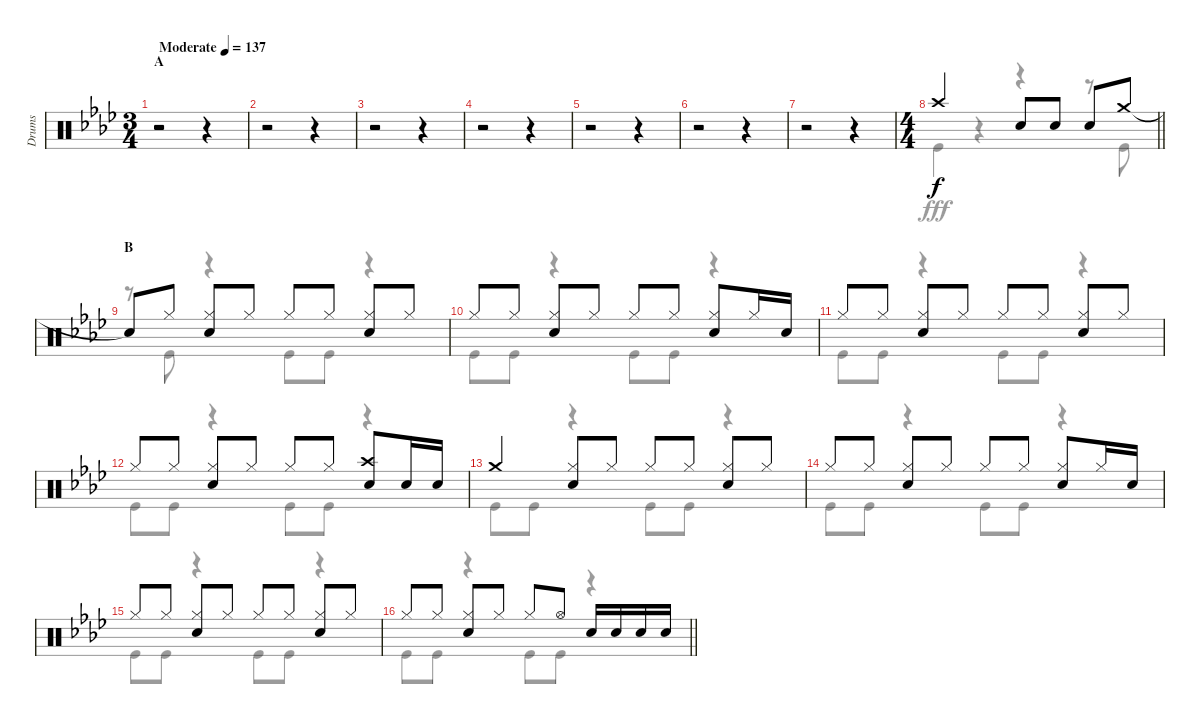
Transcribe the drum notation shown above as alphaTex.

\track ("Drums" "Drums") {instrument percussion}
\staff {score}
\articulation defaults
\voice
\ts (3 4)
\section ("" "A")
\tempo (137 "Moderate")
\clef neutral
\ks ab
r.2{dy f} r.4 |
r.2 r.4 |
r.2 r.4 |
r.2 r.4 |
r.2 r.4 |
r.2 r.4 |
r.2 r.4 |
\ts (4 4)
\barLineRight lightlight "Crash high (hit)".2 "Snare (hit) 2".8 "Snare (hit) 2".8 "Snare (hit) 2".8 "Crash medium (hit)".8
|
\section ("" "B")
"Snare (hit)"{t}.8 "Hi-Hat (closed)".8 ("Hi-Hat (closed)" "Snare (hit) 2").8 "Hi-Hat (closed)".8 "Hi-Hat (closed)".8 "Hi-Hat (closed)".8 ("Hi-Hat (closed)" "Snare (hit) 2").8 "Hi-Hat (closed)".8 |
"Hi-Hat (closed)".8 "Hi-Hat (closed)".8 ("Hi-Hat (closed)" "Snare (hit) 2").8 "Hi-Hat (closed)".8 "Hi-Hat (closed)".8 "Hi-Hat (closed)".8 ("Hi-Hat (closed)" "Snare (hit) 2").8 "Hi-Hat (closed)".16 "Snare (hit) 2".16 |
"Hi-Hat (closed)".8 "Hi-Hat (closed)".8 ("Hi-Hat (closed)" "Snare (hit) 2").8 "Hi-Hat (closed)".8 "Hi-Hat (closed)".8 "Hi-Hat (closed)".8 ("Hi-Hat (closed)" "Snare (hit) 2").8 "Hi-Hat (closed)".8 |
"Hi-Hat (closed)".8 "Hi-Hat (closed)".8 ("Hi-Hat (closed)" "Snare (hit) 2").8 "Hi-Hat (closed)".8 "Hi-Hat (closed)".8 "Hi-Hat (closed)".8 ("Crash high (hit)" "Snare (hit) 2").8 "Snare (hit) 2".16 "Snare (hit) 2".16 |
"Crash medium (hit)".4 ("Hi-Hat (closed)" "Snare (hit) 2").8 "Hi-Hat (closed)".8 "Hi-Hat (closed)".8 "Hi-Hat (closed)".8 ("Hi-Hat (closed)" "Snare (hit) 2").8 "Hi-Hat (closed)".8 |
"Hi-Hat (closed)".8 "Hi-Hat (closed)".8 ("Hi-Hat (closed)" "Snare (hit) 2").8 "Hi-Hat (closed)".8 "Hi-Hat (closed)".8 "Hi-Hat (closed)".8 ("Hi-Hat (closed)" "Snare (hit) 2").8 "Hi-Hat (closed)".16 "Snare (hit) 2".16 |
"Hi-Hat (closed)".8 "Hi-Hat (closed)".8 ("Hi-Hat (closed)" "Snare (hit) 2").8 "Hi-Hat (closed)".8 "Hi-Hat (closed)".8 "Hi-Hat (closed)".8 ("Hi-Hat (closed)" "Snare (hit) 2").8 "Hi-Hat (closed)".8 |
\barLineRight lightlight "Hi-Hat (closed)".8 "Hi-Hat (closed)".8
("Hi-Hat (closed)" "Snare (hit) 2").8 "Hi-Hat (closed)".8 "Hi-Hat (closed)".8 "Hi-Hat (open)".8 "Snare (hit) 2".16 "Snare (hit) 2".16 "Snare (hit) 2".16 "Snare (hit) 2".16
\voice
\clef neutral
\ottava regular
\simile none
\ks ab
r.2{dy fff} r.4 |
r.2 r.4 |
r.2 r.4 |
r.2 r.4 |
r.2 r.4 |
r.2 r.4 |
r.2 r.4 |
\barLineRight lightlight "Kick (hit)".4
r.4 r.4 r.8 "Kick (hit)".8 |
r.8 "Kick (hit)".8 r.4 "Kick (hit)".8 "Kick (hit)".8 r.4 |
"Kick (hit)".8 "Kick (hit)".8 r.4 "Kick (hit)".8 "Kick (hit)".8 r.4 |
"Kick (hit)".8 "Kick (hit)".8 r.4 "Kick (hit)".8 "Kick (hit)".8 r.4 |
"Kick (hit)".8 "Kick (hit)".8 r.4 "Kick (hit)".8 "Kick (hit)".8 r.4 |
"Kick (hit)".8 "Kick (hit)".8 r.4 "Kick (hit)".8 "Kick (hit)".8 r.4 |
"Kick (hit)".8 "Kick (hit)".8 r.4 "Kick (hit)".8 "Kick (hit)".8 r.4 |
"Kick (hit)".8 "Kick (hit)".8 r.4 "Kick (hit)".8 "Kick (hit)".8 r.4 |
\barLineRight lightlight "Kick (hit)".8 "Kick (hit)".8
r.4 "Kick (hit)".8 "Kick (hit)".8 r.4
